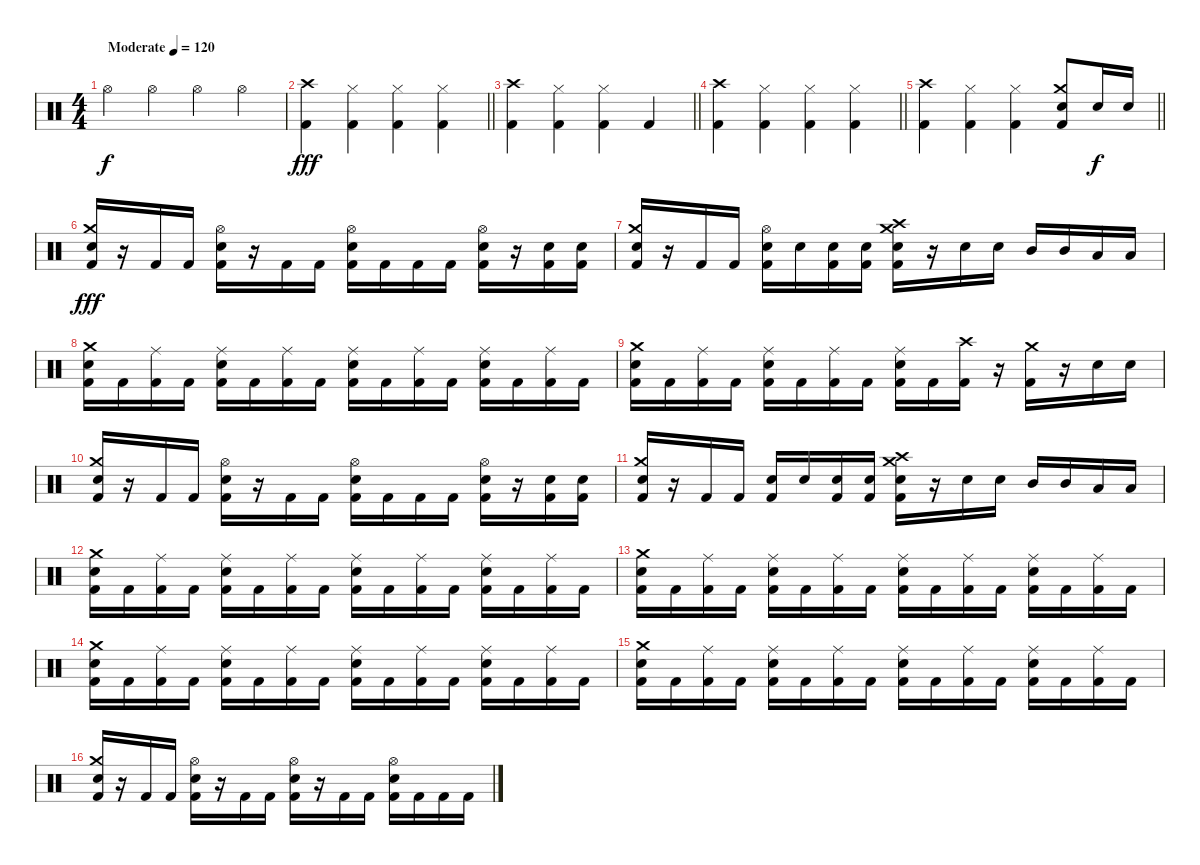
\track "" {instrument percussion}
\staff {score}
\articulation defaults
\ts (4 4)
\tempo (120 "Moderate")
\clef neutral
\ks c "Hi-Hat (open)".4{dy f} "Hi-Hat (open)".4 "Hi-Hat (open)".4 "Hi-Hat (open)".4
|
\barLineRight lightlight
("Crash high (hit)" "Kick (hit) 2").4{dy fff} ("Hi-Hat (closed)" "Kick (hit) 2").4 ("Hi-Hat (closed)" "Kick (hit) 2").4 ("Hi-Hat (closed)" "Kick (hit) 2").4 |
\barLineRight lightlight
("Crash high (hit)" "Kick (hit) 2").4 ("Hi-Hat (closed)" "Kick (hit) 2").4 ("Hi-Hat (closed)" "Kick (hit) 2").4 "Kick (hit) 2".4 |
\barLineRight lightlight
("Crash high (hit)" "Kick (hit) 2").4 ("Hi-Hat (closed)" "Kick (hit) 2").4 ("Hi-Hat (closed)" "Kick (hit) 2").4 ("Hi-Hat (closed)" "Kick (hit) 2").4 |
\barLineRight lightlight
("Crash high (hit)" "Kick (hit) 2").4 ("Hi-Hat (closed)" "Kick (hit) 2").4 ("Hi-Hat (closed)" "Kick (hit) 2").4 ("Crash medium (hit)" "Snare (hit) 2" "Kick (hit) 2").8 "Snare (hit) 2".16{dy f} "Snare (hit) 2".16 |
("Crash medium (hit)" "Snare (hit) 2" "Kick (hit) 2").16{dy fff} r.16 "Kick (hit) 2".16 "Kick (hit) 2".16 ("Hi-Hat (open)" "Snare (hit) 2" "Kick (hit) 2").16 r.16 "Kick (hit) 2".16 "Kick (hit) 2".16 ("Hi-Hat (open)" "Snare (hit) 2" "Kick (hit) 2").16 "Kick (hit) 2".16 "Kick (hit) 2".16 "Kick (hit) 2".16 ("Hi-Hat (open)" "Snare (hit) 2" "Kick (hit) 2").16 r.16 ("Snare (hit) 2" "Kick (hit) 2").16 ("Snare (hit) 2" "Kick (hit) 2").16 |
("Crash medium (hit)" "Snare (hit) 2" "Kick (hit) 2").16 r.16 "Kick (hit) 2".16 "Kick (hit) 2".16 ("Hi-Hat (open)" "Snare (hit) 2" "Kick (hit) 2").16 "Snare (hit) 2".16 ("Snare (hit) 2" "Kick (hit) 2").16 ("Snare (hit) 2" "Kick (hit) 2").16 ("Crash medium (hit)" "Crash high (hit)" "Snare (hit) 2" "Kick (hit) 2").16 r.16 "Snare (hit) 2".16 "Snare (hit) 2".16 "Mid Tom (hit)".16 "Mid Tom (hit)".16 "Low Tom (hit)".16 "Low Tom (hit)".16 |
("Crash medium (hit)" "Snare (hit) 2" "Kick (hit) 2").16 "Kick (hit) 2".16 ("Ride (middle)" "Kick (hit) 2").16 "Kick (hit) 2".16 ("Ride (middle)" "Snare (hit) 2" "Kick (hit) 2").16 "Kick (hit) 2".16 ("Ride (middle)" "Kick (hit) 2").16 "Kick (hit) 2".16 ("Ride (middle)" "Snare (hit) 2" "Kick (hit) 2").16 "Kick (hit) 2".16 ("Ride (middle)" "Kick (hit) 2").16 "Kick (hit) 2".16 ("Ride (middle)" "Snare (hit) 2" "Kick (hit) 2").16 "Kick (hit) 2".16 ("Ride (middle)" "Kick (hit) 2").16 "Kick (hit) 2".16 |
("Crash medium (hit)" "Snare (hit) 2" "Kick (hit) 2").16 "Kick (hit) 2".16 ("Ride (middle)" "Kick (hit) 2").16 "Kick (hit) 2".16 ("Ride (middle)" "Snare (hit) 2" "Kick (hit) 2").16 "Kick (hit) 2".16 ("Ride (middle)" "Kick (hit) 2").16 "Kick (hit) 2".16 ("Ride (middle)" "Snare (hit) 2" "Kick (hit) 2").16 "Kick (hit) 2".16 ("Crash high (hit)" "Kick (hit) 2").16 r.16 ("Crash medium (hit)" "Kick (hit) 2").16 r.16 "Snare (hit) 2".16 "Snare (hit) 2".16 |
("Crash medium (hit)" "Snare (hit) 2" "Kick (hit) 2").16 r.16 "Kick (hit) 2".16 "Kick (hit) 2".16 ("Hi-Hat (open)" "Snare (hit) 2" "Kick (hit) 2").16 r.16 "Kick (hit) 2".16 "Kick (hit) 2".16 ("Hi-Hat (open)" "Snare (hit) 2" "Kick (hit) 2").16 "Kick (hit) 2".16 "Kick (hit) 2".16 "Kick (hit) 2".16 ("Hi-Hat (open)" "Snare (hit) 2" "Kick (hit) 2").16 r.16 ("Snare (hit) 2" "Kick (hit) 2").16 ("Snare (hit) 2" "Kick (hit) 2").16 |
("Crash medium (hit)" "Snare (hit) 2" "Kick (hit) 2").16 r.16 "Kick (hit) 2".16 "Kick (hit) 2".16 ("Snare (hit) 2" "Kick (hit) 2").16 "Snare (hit) 2".16 ("Snare (hit) 2" "Kick (hit) 2").16 ("Snare (hit) 2" "Kick (hit) 2").16 ("Crash medium (hit)" "Crash high (hit)" "Snare (hit) 2" "Kick (hit) 2").16 r.16 "Snare (hit) 2".16 "Snare (hit) 2".16 "Mid Tom (hit)".16 "Mid Tom (hit)".16 "Low Tom (hit)".16 "Low Tom (hit)".16 |
("Crash medium (hit)" "Snare (hit) 2" "Kick (hit) 2").16 "Kick (hit) 2".16 ("Ride (middle)" "Kick (hit) 2").16 "Kick (hit) 2".16 ("Ride (middle)" "Snare (hit) 2" "Kick (hit) 2").16 "Kick (hit) 2".16 ("Ride (middle)" "Kick (hit) 2").16 "Kick (hit) 2".16 ("Ride (middle)" "Snare (hit) 2" "Kick (hit) 2").16 "Kick (hit) 2".16 ("Ride (middle)" "Kick (hit) 2").16 "Kick (hit) 2".16 ("Ride (middle)" "Snare (hit) 2" "Kick (hit) 2").16 "Kick (hit) 2".16 ("Ride (middle)" "Kick (hit) 2").16 "Kick (hit) 2".16 |
("Crash medium (hit)" "Snare (hit) 2" "Kick (hit) 2").16 "Kick (hit) 2".16 ("Ride (middle)" "Kick (hit) 2").16 "Kick (hit) 2".16 ("Ride (middle)" "Snare (hit) 2" "Kick (hit) 2").16 "Kick (hit) 2".16 ("Ride (middle)" "Kick (hit) 2").16 "Kick (hit) 2".16 ("Ride (middle)" "Snare (hit) 2" "Kick (hit) 2").16{txt ""} "Kick (hit) 2".16 ("Ride (middle)" "Kick (hit) 2").16 "Kick (hit) 2".16 ("Ride (middle)" "Snare (hit) 2" "Kick (hit) 2").16 "Kick (hit) 2".16 ("Ride (middle)" "Kick (hit) 2").16 "Kick (hit) 2".16 |
("Crash medium (hit)" "Snare (hit) 2" "Kick (hit) 2").16 "Kick (hit) 2".16 ("Ride (middle)" "Kick (hit) 2").16 "Kick (hit) 2".16 ("Ride (middle)" "Snare (hit) 2" "Kick (hit) 2").16 "Kick (hit) 2".16 ("Ride (middle)" "Kick (hit) 2").16 "Kick (hit) 2".16 ("Ride (middle)" "Snare (hit) 2" "Kick (hit) 2").16 "Kick (hit) 2".16 ("Ride (middle)" "Kick (hit) 2").16 "Kick (hit) 2".16 ("Ride (middle)" "Snare (hit) 2" "Kick (hit) 2").16 "Kick (hit) 2".16 ("Ride (middle)" "Kick (hit) 2").16 "Kick (hit) 2".16 |
("Crash medium (hit)" "Snare (hit) 2" "Kick (hit) 2").16 "Kick (hit) 2".16 ("Ride (middle)" "Kick (hit) 2").16 "Kick (hit) 2".16 ("Ride (middle)" "Snare (hit) 2" "Kick (hit) 2").16 "Kick (hit) 2".16 ("Ride (middle)" "Kick (hit) 2").16 "Kick (hit) 2".16 ("Ride (middle)" "Snare (hit) 2" "Kick (hit) 2").16 "Kick (hit) 2".16 ("Ride (middle)" "Kick (hit) 2").16 "Kick (hit) 2".16 ("Ride (middle)" "Snare (hit) 2" "Kick (hit) 2").16 "Kick (hit) 2".16 ("Ride (middle)" "Kick (hit) 2").16 "Kick (hit) 2".16 |
("Crash medium (hit)" "Snare (hit) 2" "Kick (hit) 2").16 r.16 "Kick (hit) 2".16 "Kick (hit) 2".16 ("Hi-Hat (open)" "Snare (hit) 2" "Kick (hit) 2").16 r.16 "Kick (hit) 2".16 "Kick (hit) 2".16 ("Hi-Hat (open)" "Snare (hit) 2" "Kick (hit) 2").16 r.16 "Kick (hit) 2".16 "Kick (hit) 2".16 ("Hi-Hat (open)" "Snare (hit) 2" "Kick (hit) 2").16 "Kick (hit) 2".16 "Kick (hit) 2".16 "Kick (hit) 2".16
